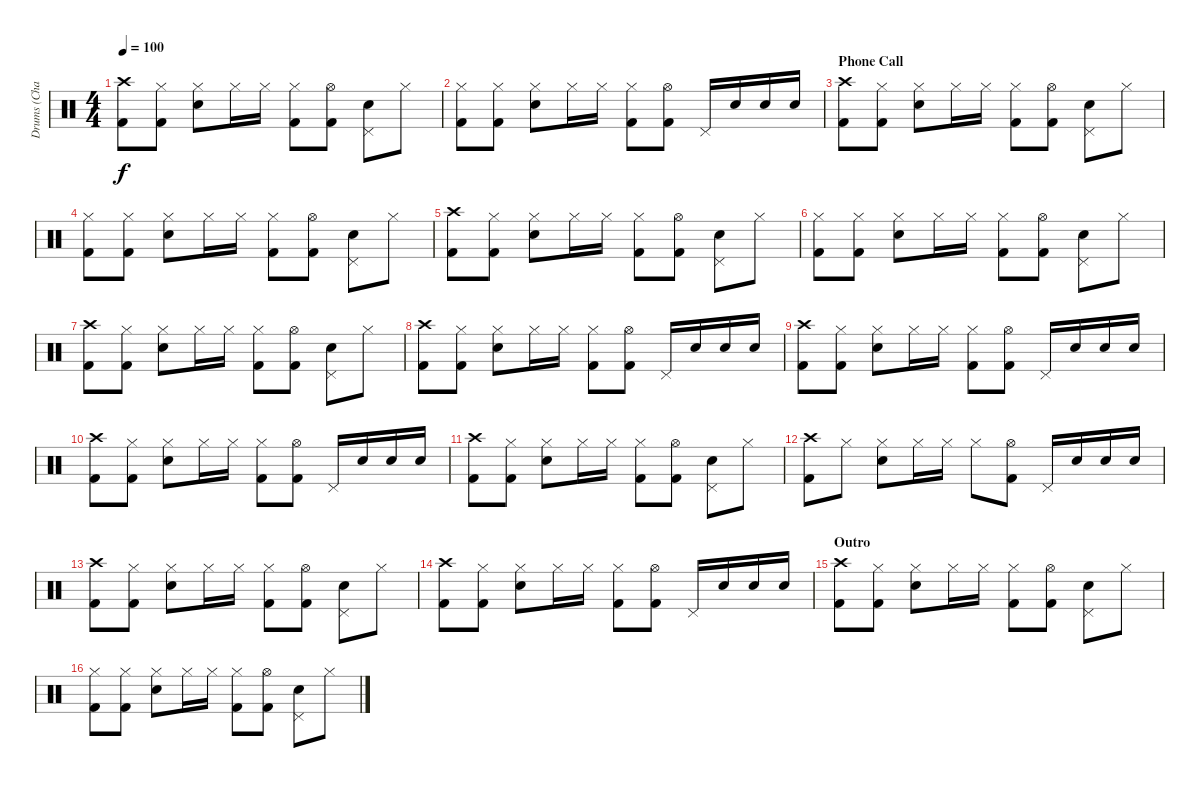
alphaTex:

\track ("Drums (Charlie)" "Drums (Cha") {instrument percussion}
\staff {score}
\articulation defaults
\ts (4 4)
\tempo 100
\clef neutral
\ks c
("Crash high (hit)" "Kick (hit) 2").8{dy f} ("Hi-Hat (closed)" "Kick (hit) 2").8 ("Hi-Hat (closed)" "Electric Snare (hit)").8 "Hi-Hat (closed)".16 "Hi-Hat (closed)".16 ("Hi-Hat (closed)" "Kick (hit) 2").8 ("Hi-Hat (open)" "Kick (hit) 2").8 ("Pedal Hi-Hat (hit)" "Electric Snare (hit)").8 "Hi-Hat (closed)".8 |
("Hi-Hat (closed)" "Kick (hit) 2").8 ("Hi-Hat (closed)" "Kick (hit) 2").8 ("Hi-Hat (closed)" "Electric Snare (hit)").8 "Hi-Hat (closed)".16 "Hi-Hat (closed)".16 ("Hi-Hat (closed)" "Kick (hit) 2").8 ("Hi-Hat (open)" "Kick (hit) 2").8 "Pedal Hi-Hat (hit)".16 "Electric Snare (hit)".16 "Electric Snare (hit)".16 "Electric Snare (hit)".16 |
\section ("" "Phone Call")
("Crash high (hit)" "Kick (hit) 2").8 ("Hi-Hat (closed)" "Kick (hit) 2").8 ("Hi-Hat (closed)" "Electric Snare (hit)").8 "Hi-Hat (closed)".16 "Hi-Hat (closed)".16 ("Hi-Hat (closed)" "Kick (hit) 2").8 ("Hi-Hat (open)" "Kick (hit) 2").8 ("Pedal Hi-Hat (hit)" "Electric Snare (hit)").8 "Hi-Hat (closed)".8 |
("Hi-Hat (closed)" "Kick (hit) 2").8 ("Hi-Hat (closed)" "Kick (hit) 2").8 ("Hi-Hat (closed)" "Electric Snare (hit)").8 "Hi-Hat (closed)".16 "Hi-Hat (closed)".16 ("Hi-Hat (closed)" "Kick (hit) 2").8 ("Hi-Hat (open)" "Kick (hit) 2").8 ("Pedal Hi-Hat (hit)" "Electric Snare (hit)").8 "Hi-Hat (closed)".8 |
("Crash high (hit)" "Kick (hit) 2").8 ("Hi-Hat (closed)" "Kick (hit) 2").8 ("Hi-Hat (closed)" "Electric Snare (hit)").8 "Hi-Hat (closed)".16 "Hi-Hat (closed)".16 ("Hi-Hat (closed)" "Kick (hit) 2").8 ("Hi-Hat (open)" "Kick (hit) 2").8 ("Pedal Hi-Hat (hit)" "Electric Snare (hit)").8 "Hi-Hat (closed)".8 |
("Hi-Hat (closed)" "Kick (hit) 2").8 ("Hi-Hat (closed)" "Kick (hit) 2").8 ("Hi-Hat (closed)" "Electric Snare (hit)").8 "Hi-Hat (closed)".16 "Hi-Hat (closed)".16 ("Hi-Hat (closed)" "Kick (hit) 2").8 ("Hi-Hat (open)" "Kick (hit) 2").8 ("Pedal Hi-Hat (hit)" "Electric Snare (hit)").8 "Hi-Hat (closed)".8 |
("Crash high (hit)" "Kick (hit) 2").8 ("Hi-Hat (closed)" "Kick (hit) 2").8 ("Hi-Hat (closed)" "Electric Snare (hit)").8 "Hi-Hat (closed)".16 "Hi-Hat (closed)".16 ("Hi-Hat (closed)" "Kick (hit) 2").8 ("Hi-Hat (open)" "Kick (hit) 2").8 ("Pedal Hi-Hat (hit)" "Electric Snare (hit)").8 "Hi-Hat (closed)".8 |
("Crash high (hit)" "Kick (hit) 2").8 ("Hi-Hat (closed)" "Kick (hit) 2").8 ("Hi-Hat (closed)" "Electric Snare (hit)").8 "Hi-Hat (closed)".16 "Hi-Hat (closed)".16 ("Hi-Hat (closed)" "Kick (hit) 2").8 ("Hi-Hat (open)" "Kick (hit) 2").8 "Pedal Hi-Hat (hit)".16 "Electric Snare (hit)".16 "Electric Snare (hit)".16 "Electric Snare (hit)".16 |
("Crash high (hit)" "Kick (hit) 2").8 ("Hi-Hat (closed)" "Kick (hit) 2").8 ("Hi-Hat (closed)" "Electric Snare (hit)").8 "Hi-Hat (closed)".16 "Hi-Hat (closed)".16 ("Hi-Hat (closed)" "Kick (hit) 2").8 ("Hi-Hat (open)" "Kick (hit) 2").8 "Pedal Hi-Hat (hit)".16 "Electric Snare (hit)".16 "Electric Snare (hit)".16 "Electric Snare (hit)".16 |
("Crash high (hit)" "Kick (hit) 2").8 ("Hi-Hat (closed)" "Kick (hit) 2").8 ("Hi-Hat (closed)" "Electric Snare (hit)").8 "Hi-Hat (closed)".16 "Hi-Hat (closed)".16 ("Hi-Hat (closed)" "Kick (hit) 2").8 ("Hi-Hat (open)" "Kick (hit) 2").8 "Pedal Hi-Hat (hit)".16 "Electric Snare (hit)".16 "Electric Snare (hit)".16 "Electric Snare (hit)".16 |
("Crash high (hit)" "Kick (hit) 2").8 ("Hi-Hat (closed)" "Kick (hit) 2").8 ("Hi-Hat (closed)" "Electric Snare (hit)").8 "Hi-Hat (closed)".16 "Hi-Hat (closed)".16 ("Hi-Hat (closed)" "Kick (hit) 2").8 ("Hi-Hat (open)" "Kick (hit) 2").8 ("Pedal Hi-Hat (hit)" "Electric Snare (hit)").8 "Hi-Hat (closed)".8 |
("Crash high (hit)" "Kick (hit) 2").8 "Hi-Hat (closed)".8 ("Hi-Hat (closed)" "Electric Snare (hit)").8 "Hi-Hat (closed)".16 "Hi-Hat (closed)".16 "Hi-Hat (closed)".8 ("Hi-Hat (open)" "Kick (hit) 2").8 "Pedal Hi-Hat (hit)".16 "Electric Snare (hit)".16 "Electric Snare (hit)".16 "Electric Snare (hit)".16 |
("Crash high (hit)" "Kick (hit) 2").8 ("Hi-Hat (closed)" "Kick (hit) 2").8 ("Hi-Hat (closed)" "Electric Snare (hit)").8 "Hi-Hat (closed)".16 "Hi-Hat (closed)".16 ("Hi-Hat (closed)" "Kick (hit) 2").8 ("Hi-Hat (open)" "Kick (hit) 2").8 ("Pedal Hi-Hat (hit)" "Electric Snare (hit)").8 "Hi-Hat (closed)".8 |
("Crash high (hit)" "Kick (hit) 2").8 ("Hi-Hat (closed)" "Kick (hit) 2").8 ("Hi-Hat (closed)" "Electric Snare (hit)").8 "Hi-Hat (closed)".16 "Hi-Hat (closed)".16 ("Hi-Hat (closed)" "Kick (hit) 2").8 ("Hi-Hat (open)" "Kick (hit) 2").8 "Pedal Hi-Hat (hit)".16 "Electric Snare (hit)".16 "Electric Snare (hit)".16 "Electric Snare (hit)".16 |
\section ("" "Outro")
("Crash high (hit)" "Kick (hit) 2").8 ("Hi-Hat (closed)" "Kick (hit) 2").8 ("Hi-Hat (closed)" "Electric Snare (hit)").8 "Hi-Hat (closed)".16 "Hi-Hat (closed)".16 ("Hi-Hat (closed)" "Kick (hit) 2").8 ("Hi-Hat (open)" "Kick (hit) 2").8 ("Pedal Hi-Hat (hit)" "Electric Snare (hit)").8 "Hi-Hat (closed)".8 |
("Hi-Hat (closed)" "Kick (hit) 2").8 ("Hi-Hat (closed)" "Kick (hit) 2").8 ("Hi-Hat (closed)" "Electric Snare (hit)").8 "Hi-Hat (closed)".16 "Hi-Hat (closed)".16 ("Hi-Hat (closed)" "Kick (hit) 2").8 ("Hi-Hat (open)" "Kick (hit) 2").8 ("Pedal Hi-Hat (hit)" "Electric Snare (hit)").8 "Hi-Hat (closed)".8
